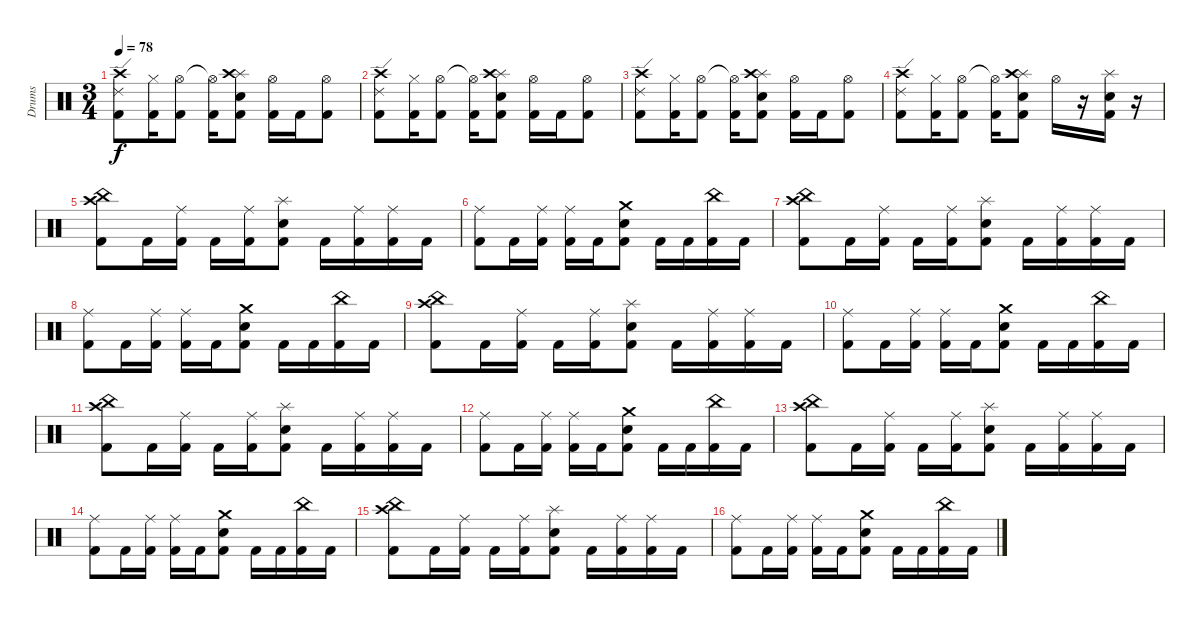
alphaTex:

\track ("Drums" "Drums") {instrument percussion}
\staff {score}
\articulation defaults
\ts (3 4)
\tempo 78
\clef neutral
\ks c
("Crash high (hit)" "Ride (edge) 2" "Kick (hit) 2").8{dy f} ("Hi-Hat (closed)" "Kick (hit) 2").16 ("Hi-Hat (open)" "Kick (hit) 2").8 ("Hi-Hat (open)"{t} "Kick (hit) 2").16 ("Splash (hit)" "Crash high (hit)" "Snare (hit) 2" "Kick (hit) 2").8 ("Hi-Hat (open)" "Kick (hit) 2").16 "Kick (hit) 2".16 ("Hi-Hat (open)" "Kick (hit) 2").8 |
("Crash high (hit)" "Ride (edge) 2" "Kick (hit) 2").8 ("Hi-Hat (closed)" "Kick (hit) 2").16 ("Hi-Hat (open)" "Kick (hit) 2").8 ("Hi-Hat (open)"{t} "Kick (hit) 2").16 ("Splash (hit)" "Crash high (hit)" "Snare (hit) 2" "Kick (hit) 2").8 ("Hi-Hat (open)" "Kick (hit) 2").16 "Kick (hit) 2".16 ("Hi-Hat (open)" "Kick (hit) 2").8 |
("Crash high (hit)" "Ride (edge) 2" "Kick (hit) 2").8 ("Hi-Hat (closed)" "Kick (hit) 2").16 ("Hi-Hat (open)" "Kick (hit) 2").8 ("Hi-Hat (open)"{t} "Kick (hit) 2").16 ("Splash (hit)" "Crash high (hit)" "Snare (hit) 2" "Kick (hit) 2").8 ("Hi-Hat (open)" "Kick (hit) 2").16 "Kick (hit) 2".16 ("Hi-Hat (open)" "Kick (hit) 2").8 |
("Crash high (hit)" "Ride (edge) 2" "Kick (hit) 2").8 ("Hi-Hat (closed)" "Kick (hit) 2").16 ("Hi-Hat (open)" "Kick (hit) 2").8 ("Hi-Hat (open)"{t} "Kick (hit) 2").16 ("Splash (hit)" "Crash high (hit)" "Snare (hit) 2" "Kick (hit) 2").8 "Hi-Hat (open)".16 r.16 ("Splash (hit)" "Kick (hit) 2" "Snare (hit) 2").16 r.16 |
("China (hit)" "Crash high (hit)" "Kick (hit) 2").8 "Kick (hit) 2".16 ("Ride (middle)" "Kick (hit) 2").16 "Kick (hit) 2".16 ("Ride (middle)" "Kick (hit) 2").16 ("Splash (hit)" "Snare (hit) 2" "Kick (hit) 2").8 "Kick (hit) 2".16 ("Ride (middle)" "Kick (hit) 2").16 ("Ride (middle)" "Kick (hit) 2").16 "Kick (hit) 2".16 |
("Ride (middle)" "Kick (hit) 2").8 "Kick (hit) 2".16 ("Ride (middle)" "Kick (hit) 2").16 ("Ride (middle)" "Kick (hit) 2").16 "Kick (hit) 2".16 ("Crash medium (hit)" "Snare (hit) 2" "Kick (hit) 2").8 "Kick (hit) 2".16 "Kick (hit) 2".16 ("China (hit)" "Kick (hit) 2").16 "Kick (hit) 2".16 |
("China (hit)" "Crash high (hit)" "Kick (hit) 2").8 "Kick (hit) 2".16 ("Ride (middle)" "Kick (hit) 2").16 "Kick (hit) 2".16 ("Ride (middle)" "Kick (hit) 2").16 ("Splash (hit)" "Snare (hit) 2" "Kick (hit) 2").8 "Kick (hit) 2".16 ("Ride (middle)" "Kick (hit) 2").16 ("Ride (middle)" "Kick (hit) 2").16 "Kick (hit) 2".16 |
("Ride (middle)" "Kick (hit) 2").8 "Kick (hit) 2".16 ("Ride (middle)" "Kick (hit) 2").16 ("Ride (middle)" "Kick (hit) 2").16 "Kick (hit) 2".16 ("Crash medium (hit)" "Snare (hit) 2" "Kick (hit) 2").8 "Kick (hit) 2".16 "Kick (hit) 2".16 ("China (hit)" "Kick (hit) 2").16 "Kick (hit) 2".16 |
("China (hit)" "Crash high (hit)" "Kick (hit) 2").8 "Kick (hit) 2".16 ("Ride (middle)" "Kick (hit) 2").16 "Kick (hit) 2".16 ("Ride (middle)" "Kick (hit) 2").16 ("Splash (hit)" "Snare (hit) 2" "Kick (hit) 2").8 "Kick (hit) 2".16 ("Ride (middle)" "Kick (hit) 2").16 ("Ride (middle)" "Kick (hit) 2").16 "Kick (hit) 2".16 |
("Ride (middle)" "Kick (hit) 2").8 "Kick (hit) 2".16 ("Ride (middle)" "Kick (hit) 2").16 ("Ride (middle)" "Kick (hit) 2").16 "Kick (hit) 2".16 ("Crash medium (hit)" "Snare (hit) 2" "Kick (hit) 2").8 "Kick (hit) 2".16 "Kick (hit) 2".16 ("China (hit)" "Kick (hit) 2").16 "Kick (hit) 2".16 |
("China (hit)" "Crash high (hit)" "Kick (hit) 2").8 "Kick (hit) 2".16 ("Ride (middle)" "Kick (hit) 2").16 "Kick (hit) 2".16 ("Ride (middle)" "Kick (hit) 2").16 ("Splash (hit)" "Snare (hit) 2" "Kick (hit) 2").8 "Kick (hit) 2".16 ("Ride (middle)" "Kick (hit) 2").16 ("Ride (middle)" "Kick (hit) 2").16 "Kick (hit) 2".16 |
("Ride (middle)" "Kick (hit) 2").8 "Kick (hit) 2".16 ("Ride (middle)" "Kick (hit) 2").16 ("Ride (middle)" "Kick (hit) 2").16 "Kick (hit) 2".16 ("Crash medium (hit)" "Snare (hit) 2" "Kick (hit) 2").8 "Kick (hit) 2".16 "Kick (hit) 2".16 ("China (hit)" "Kick (hit) 2").16 "Kick (hit) 2".16 |
("China (hit)" "Crash high (hit)" "Kick (hit) 2").8 "Kick (hit) 2".16 ("Ride (middle)" "Kick (hit) 2").16 "Kick (hit) 2".16 ("Ride (middle)" "Kick (hit) 2").16 ("Splash (hit)" "Snare (hit) 2" "Kick (hit) 2").8 "Kick (hit) 2".16 ("Ride (middle)" "Kick (hit) 2").16 ("Ride (middle)" "Kick (hit) 2").16 "Kick (hit) 2".16 |
("Ride (middle)" "Kick (hit) 2").8 "Kick (hit) 2".16 ("Ride (middle)" "Kick (hit) 2").16 ("Ride (middle)" "Kick (hit) 2").16 "Kick (hit) 2".16 ("Crash medium (hit)" "Snare (hit) 2" "Kick (hit) 2").8 "Kick (hit) 2".16 "Kick (hit) 2".16 ("China (hit)" "Kick (hit) 2").16 "Kick (hit) 2".16 |
("China (hit)" "Crash high (hit)" "Kick (hit) 2").8 "Kick (hit) 2".16 ("Ride (middle)" "Kick (hit) 2").16 "Kick (hit) 2".16 ("Ride (middle)" "Kick (hit) 2").16 ("Splash (hit)" "Snare (hit) 2" "Kick (hit) 2").8 "Kick (hit) 2".16 ("Ride (middle)" "Kick (hit) 2").16 ("Ride (middle)" "Kick (hit) 2").16 "Kick (hit) 2".16 |
("Ride (middle)" "Kick (hit) 2").8 "Kick (hit) 2".16 ("Ride (middle)" "Kick (hit) 2").16 ("Ride (middle)" "Kick (hit) 2").16 "Kick (hit) 2".16 ("Crash medium (hit)" "Snare (hit) 2" "Kick (hit) 2").8 "Kick (hit) 2".16 "Kick (hit) 2".16 ("China (hit)" "Kick (hit) 2").16 "Kick (hit) 2".16
